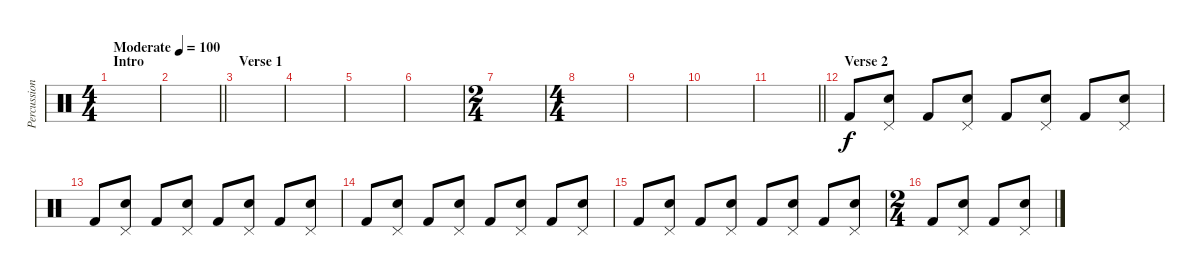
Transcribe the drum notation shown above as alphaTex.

\track ("Percussion" "Percussion") {instrument percussion}
\staff {score}
\articulation defaults
\ts (4 4)
\section ("" "Intro")
\tempo (100 "Moderate")
\clef neutral
\ks c
|
\barLineRight lightlight
|
\section ("" "Verse 1")
|
|
|
|
\ts (2 4)
|
\ts (4 4)
|
|
|
\barLineRight lightlight
|
\section ("" "Verse 2")
"Kick (hit) 2".8 ("Pedal Hi-Hat (hit)" "Snare (hit) 2").8 "Kick (hit) 2".8 ("Pedal Hi-Hat (hit)" "Snare (hit) 2").8 "Kick (hit) 2".8 ("Pedal Hi-Hat (hit)" "Snare (hit) 2").8 "Kick (hit) 2".8 ("Pedal Hi-Hat (hit)" "Snare (hit) 2").8 |
"Kick (hit) 2".8 ("Pedal Hi-Hat (hit)" "Snare (hit) 2").8 "Kick (hit) 2".8 ("Pedal Hi-Hat (hit)" "Snare (hit) 2").8 "Kick (hit) 2".8 ("Pedal Hi-Hat (hit)" "Snare (hit) 2").8 "Kick (hit) 2".8 ("Pedal Hi-Hat (hit)" "Snare (hit) 2").8 |
"Kick (hit) 2".8 ("Pedal Hi-Hat (hit)" "Snare (hit) 2").8 "Kick (hit) 2".8 ("Pedal Hi-Hat (hit)" "Snare (hit) 2").8 "Kick (hit) 2".8 ("Pedal Hi-Hat (hit)" "Snare (hit) 2").8 "Kick (hit) 2".8 ("Pedal Hi-Hat (hit)" "Snare (hit) 2").8 |
"Kick (hit) 2".8 ("Pedal Hi-Hat (hit)" "Snare (hit) 2").8 "Kick (hit) 2".8 ("Pedal Hi-Hat (hit)" "Snare (hit) 2").8 "Kick (hit) 2".8 ("Pedal Hi-Hat (hit)" "Snare (hit) 2").8 "Kick (hit) 2".8 ("Pedal Hi-Hat (hit)" "Snare (hit) 2").8 |
\ts (2 4)
"Kick (hit) 2".8 ("Pedal Hi-Hat (hit)" "Snare (hit) 2").8 "Kick (hit) 2".8 ("Pedal Hi-Hat (hit)" "Snare (hit) 2").8
